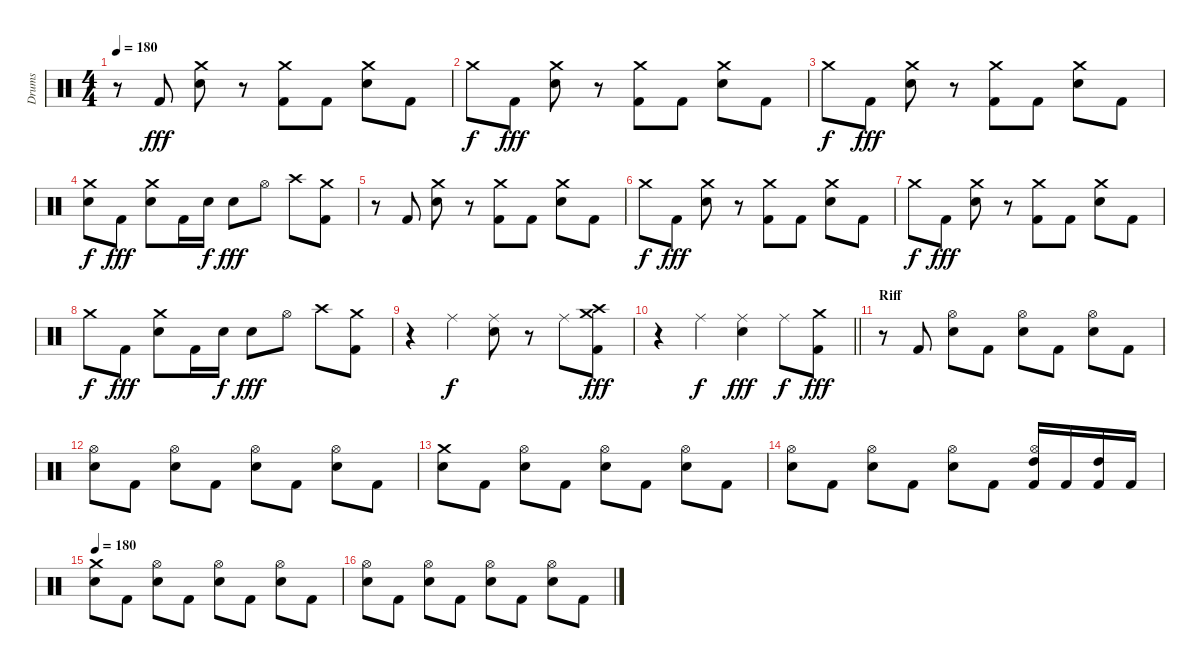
\track ("Drums" "Drums") {instrument percussion}
\staff {score}
\articulation defaults
\ts (4 4)
\tempo 180
\clef neutral
\ks c
r.8{dy fff} "Kick (hit) 2".8 ("Crash medium (hit)" "Electric Snare (hit)").8 r.8 ("Crash medium (hit)" "Kick (hit) 2").8 "Kick (hit) 2".8 ("Crash medium (hit)" "Electric Snare (hit)").8 "Kick (hit) 2".8 |
"Crash medium (hit)".8{dy f} "Kick (hit) 2".8{dy fff} ("Crash medium (hit)" "Electric Snare (hit)").8 r.8 ("Crash medium (hit)" "Kick (hit) 2").8 "Kick (hit) 2".8 ("Crash medium (hit)" "Electric Snare (hit)").8 "Kick (hit) 2".8 |
"Crash medium (hit)".8{dy f} "Kick (hit) 2".8{dy fff} ("Crash medium (hit)" "Electric Snare (hit)").8 r.8 ("Crash medium (hit)" "Kick (hit) 2").8 "Kick (hit) 2".8 ("Crash medium (hit)" "Electric Snare (hit)").8 "Kick (hit) 2".8 |
("Crash medium (hit)" "Electric Snare (hit)").8{dy f} "Kick (hit) 2".8{dy fff} ("Crash medium (hit)" "Electric Snare (hit)").8 "Kick (hit) 2".16 "Electric Snare (hit)".16{dy f} "Electric Snare (hit)".8{dy fff} "Hi-Hat (open)".8 "Crash high (hit)".8 ("Crash medium (hit)" "Kick (hit) 2").8 |
r.8 "Kick (hit) 2".8 ("Crash medium (hit)" "Electric Snare (hit)").8 r.8 ("Crash medium (hit)" "Kick (hit) 2").8 "Kick (hit) 2".8 ("Crash medium (hit)" "Electric Snare (hit)").8 "Kick (hit) 2".8 |
"Crash medium (hit)".8{dy f} "Kick (hit) 2".8{dy fff} ("Crash medium (hit)" "Electric Snare (hit)").8 r.8 ("Crash medium (hit)" "Kick (hit) 2").8 "Kick (hit) 2".8 ("Crash medium (hit)" "Electric Snare (hit)").8 "Kick (hit) 2".8 |
"Crash medium (hit)".8{dy f} "Kick (hit) 2".8{dy fff} ("Crash medium (hit)" "Electric Snare (hit)").8 r.8 ("Crash medium (hit)" "Kick (hit) 2").8 "Kick (hit) 2".8 ("Crash medium (hit)" "Electric Snare (hit)").8 "Kick (hit) 2".8 |
"Crash medium (hit)".8{dy f} "Kick (hit) 2".8{dy fff} ("Crash medium (hit)" "Electric Snare (hit)").8 "Kick (hit) 2".16 "Electric Snare (hit)".16{dy f} "Electric Snare (hit)".8{dy fff} "Hi-Hat (open)".8 "Crash high (hit)".8 ("Crash medium (hit)" "Kick (hit) 2").8 |
r.4 "Ride (middle)".4{dy f} ("Ride (middle)" "Electric Snare (hit)").8 r.8 "Ride (middle)".8 ("Crash medium (hit)" "Crash high (hit)" "Kick (hit) 2").8{dy fff} |
\barLineRight lightlight
r.4 "Ride (middle)".4{dy f} ("Ride (middle)" "Electric Snare (hit)").4{dy fff} "Ride (middle)".8{dy f} ("Crash medium (hit)" "Kick (hit) 2").8{dy fff} |
\section ("" "Riff")
r.8 "Kick (hit) 2".8 ("Hi-Hat (open)" "Electric Snare (hit)").8 "Kick (hit) 2".8 ("Hi-Hat (open)" "Electric Snare (hit)").8 "Kick (hit) 2".8 ("Hi-Hat (open)" "Electric Snare (hit)").8 "Kick (hit) 2".8 |
("Hi-Hat (open)" "Electric Snare (hit)").8 "Kick (hit) 2".8 ("Hi-Hat (open)" "Electric Snare (hit)").8 "Kick (hit) 2".8 ("Hi-Hat (open)" "Electric Snare (hit)").8 "Kick (hit) 2".8 ("Hi-Hat (open)" "Electric Snare (hit)").8 "Kick (hit) 2".8 |
("Crash medium (hit)" "Electric Snare (hit)").8 "Kick (hit) 2".8 ("Hi-Hat (open)" "Electric Snare (hit)").8 "Kick (hit) 2".8 ("Hi-Hat (open)" "Electric Snare (hit)").8 "Kick (hit) 2".8 ("Hi-Hat (open)" "Electric Snare (hit)").8 "Kick (hit) 2".8 |
("Hi-Hat (open)" "Electric Snare (hit)").8 "Kick (hit) 2".8 ("Hi-Hat (open)" "Electric Snare (hit)").8 "Kick (hit) 2".8 ("Hi-Hat (open)" "Electric Snare (hit)").8 "Kick (hit) 2".8 ("Hi-Hat (open)" "High Tom (hit)" "Kick (hit) 2").16 "Kick (hit) 2".16 ("High Tom (hit)" "Kick (hit) 2").16 "Kick (hit) 2".16 |
\tempo 180
("Crash medium (hit)" "Electric Snare (hit)").8 "Kick (hit) 2".8 ("Hi-Hat (open)" "Electric Snare (hit)").8 "Kick (hit) 2".8 ("Hi-Hat (open)" "Electric Snare (hit)").8 "Kick (hit) 2".8 ("Hi-Hat (open)" "Electric Snare (hit)").8 "Kick (hit) 2".8 |
("Hi-Hat (open)" "Electric Snare (hit)").8 "Kick (hit) 2".8 ("Hi-Hat (open)" "Electric Snare (hit)").8 "Kick (hit) 2".8 ("Hi-Hat (open)" "Electric Snare (hit)").8 "Kick (hit) 2".8 ("Hi-Hat (open)" "Electric Snare (hit)").8 "Kick (hit) 2".8
